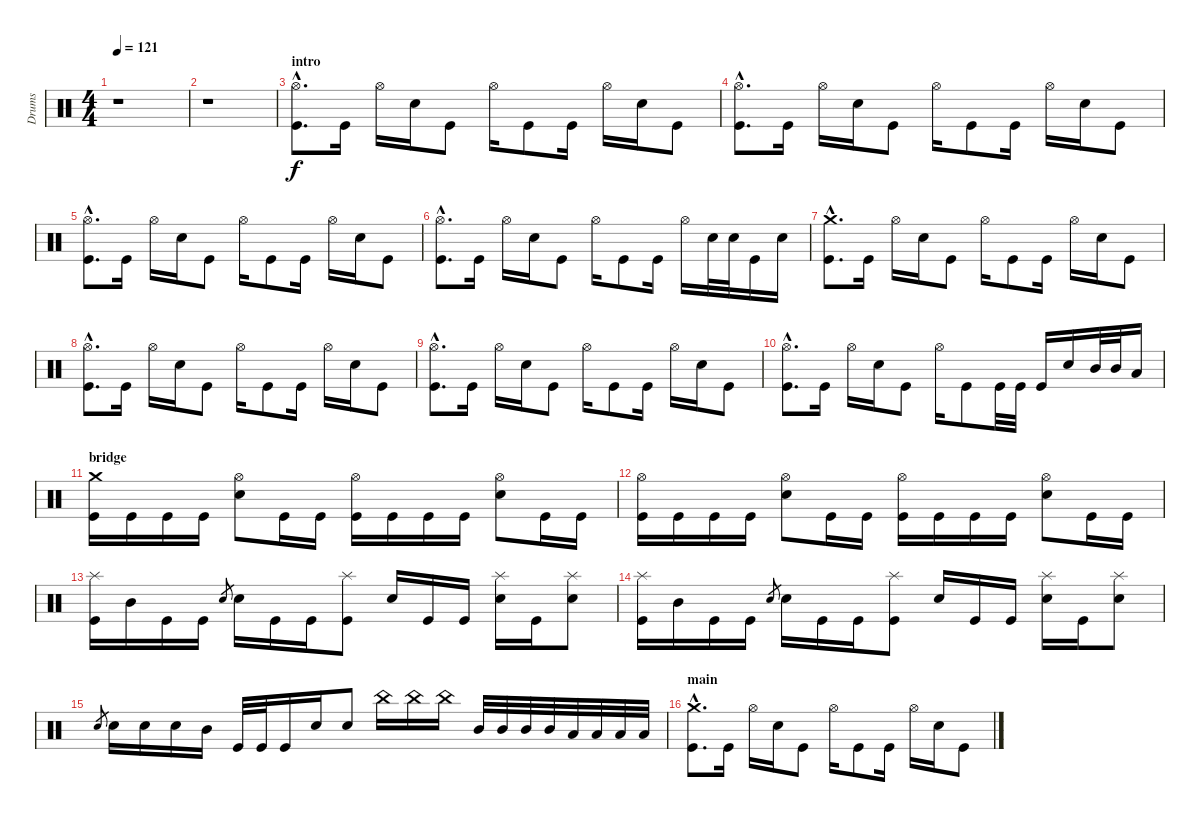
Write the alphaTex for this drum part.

\track ("Drums" "Drums") {instrument percussion}
\staff {score}
\articulation defaults
\ts (4 4)
\tempo 121
\clef neutral
\ks c
r.1{dy f} |
r.1 |
\section ("" "intro")
("Kick (hit)"{hac} "Hi-Hat (open)"{hac}).8{d} "Kick (hit)".16 "Hi-Hat (open)".16 "Electric Snare (hit)".16 "Kick (hit)".8 "Hi-Hat (open)".16 "Kick (hit)".8 "Kick (hit)".16 "Hi-Hat (open)".16 "Electric Snare (hit)".16 "Kick (hit)".8 |
("Kick (hit)"{hac} "Hi-Hat (open)"{hac}).8{d} "Kick (hit)".16 "Hi-Hat (open)".16 "Electric Snare (hit)".16 "Kick (hit)".8 "Hi-Hat (open)".16 "Kick (hit)".8 "Kick (hit)".16 "Hi-Hat (open)".16 "Electric Snare (hit)".16 "Kick (hit)".8 |
("Kick (hit)"{hac} "Hi-Hat (open)"{hac}).8{d} "Kick (hit)".16 "Hi-Hat (open)".16 "Electric Snare (hit)".16 "Kick (hit)".8 "Hi-Hat (open)".16 "Kick (hit)".8 "Kick (hit)".16 "Hi-Hat (open)".16 "Electric Snare (hit)".16 "Kick (hit)".8 |
("Kick (hit)"{hac} "Hi-Hat (open)"{hac}).8{d} "Kick (hit)".16 "Hi-Hat (open)".16 "Electric Snare (hit)".16 "Kick (hit)".8 "Hi-Hat (open)".16 "Kick (hit)".8 "Kick (hit)".16 "Hi-Hat (open)".16 "Electric Snare (hit)".32 "Electric Snare (hit)".32 "Kick (hit)".16 "Electric Snare (hit)".16 |
("Kick (hit)"{hac} "Crash medium (hit)"{hac}).8{d} "Kick (hit)".16 "Hi-Hat (open)".16 "Electric Snare (hit)".16 "Kick (hit)".8 "Hi-Hat (open)".16 "Kick (hit)".8 "Kick (hit)".16 "Hi-Hat (open)".16 "Electric Snare (hit)".16 "Kick (hit)".8 |
("Kick (hit)"{hac} "Hi-Hat (open)"{hac}).8{d} "Kick (hit)".16 "Hi-Hat (open)".16 "Electric Snare (hit)".16 "Kick (hit)".8 "Hi-Hat (open)".16 "Kick (hit)".8 "Kick (hit)".16 "Hi-Hat (open)".16 "Electric Snare (hit)".16 "Kick (hit)".8 |
("Kick (hit)"{hac} "Hi-Hat (open)"{hac}).8{d} "Kick (hit)".16 "Hi-Hat (open)".16 "Electric Snare (hit)".16 "Kick (hit)".8 "Hi-Hat (open)".16 "Kick (hit)".8 "Kick (hit)".16 "Hi-Hat (open)".16 "Electric Snare (hit)".16 "Kick (hit)".8 |
("Kick (hit)"{hac} "Hi-Hat (open)"{hac}).8{d} "Kick (hit)".16 "Hi-Hat (open)".16 "Electric Snare (hit)".16 "Kick (hit)".8 "Hi-Hat (open)".16 "Kick (hit)".8 "Kick (hit)".32 "Kick (hit)".32 "Kick (hit)".16 "Electric Snare (hit)".16 "Mid Tom (hit)".32 "Mid Tom (hit)".32 "Low Tom (hit)".16 |
\section ("" "bridge")
("Kick (hit)" "Crash medium (hit)").16 "Kick (hit)".16 "Kick (hit)".16 "Kick (hit)".16 ("Electric Snare (hit)" "Hi-Hat (open)").8 "Kick (hit)".16 "Kick (hit)".16 ("Kick (hit)" "Hi-Hat (open)").16 "Kick (hit)".16 "Kick (hit)".16 "Kick (hit)".16 ("Electric Snare (hit)" "Hi-Hat (open)").8 "Kick (hit)".16 "Kick (hit)".16 |
("Kick (hit)" "Hi-Hat (open)").16 "Kick (hit)".16 "Kick (hit)".16 "Kick (hit)".16 ("Electric Snare (hit)" "Hi-Hat (open)").8 "Kick (hit)".16 "Kick (hit)".16 ("Kick (hit)" "Hi-Hat (open)").16 "Kick (hit)".16 "Kick (hit)".16 "Kick (hit)".16 ("Electric Snare (hit)" "Hi-Hat (open)").8 "Kick (hit)".16 "Kick (hit)".16 |
("Kick (hit)" "Splash (hit)").16 "Mid Tom (hit)".16 "Kick (hit)".16 "Kick (hit)".16 "Electric Snare (hit)".8{gr} "Electric Snare (hit)".16 "Kick (hit)".16 "Kick (hit)".16 ("Kick (hit)" "Splash (hit)").8 "Electric Snare (hit)".16 "Kick (hit)".16 "Kick (hit)".16 ("Electric Snare (hit)" "Splash (hit)").16 "Kick (hit)".16 ("Electric Snare (hit)" "Splash (hit)").8 |
("Kick (hit)" "Splash (hit)").16 "Mid Tom (hit)".16 "Kick (hit)".16 "Kick (hit)".16 "Electric Snare (hit)".8{gr} "Electric Snare (hit)".16 "Kick (hit)".16 "Kick (hit)".16 ("Kick (hit)" "Splash (hit)").8 "Electric Snare (hit)".16 "Kick (hit)".16 "Kick (hit)".16 ("Electric Snare (hit)" "Splash (hit)").16 "Kick (hit)".16 ("Electric Snare (hit)" "Splash (hit)").8 |
"Electric Snare (hit)".8{gr} "Electric Snare (hit)".16 "Electric Snare (hit)".16 "Electric Snare (hit)".16 "Mid Tom (hit)".16 "Kick (hit)".32 "Kick (hit)".32 "Kick (hit)".16 "Electric Snare (hit)".16 "Electric Snare (hit)".8 "China (hit)".16 "China (hit)".16 "China (hit)".16 "Mid Tom (hit)".32 "Mid Tom (hit)".32 "Mid Tom (hit)".32 "Mid Tom (hit)".32 "Low Tom (hit)".32 "Low Tom (hit)".32 "Low Tom (hit)".32 "Low Tom (hit)".32 |
\section ("" "main")
("Kick (hit)"{hac} "Crash medium (hit)"{hac}).8{d} "Kick (hit)".16 "Hi-Hat (open)".16 "Electric Snare (hit)".16 "Kick (hit)".8 "Hi-Hat (open)".16 "Kick (hit)".8 "Kick (hit)".16 "Hi-Hat (open)".16 "Electric Snare (hit)".16 "Kick (hit)".8
